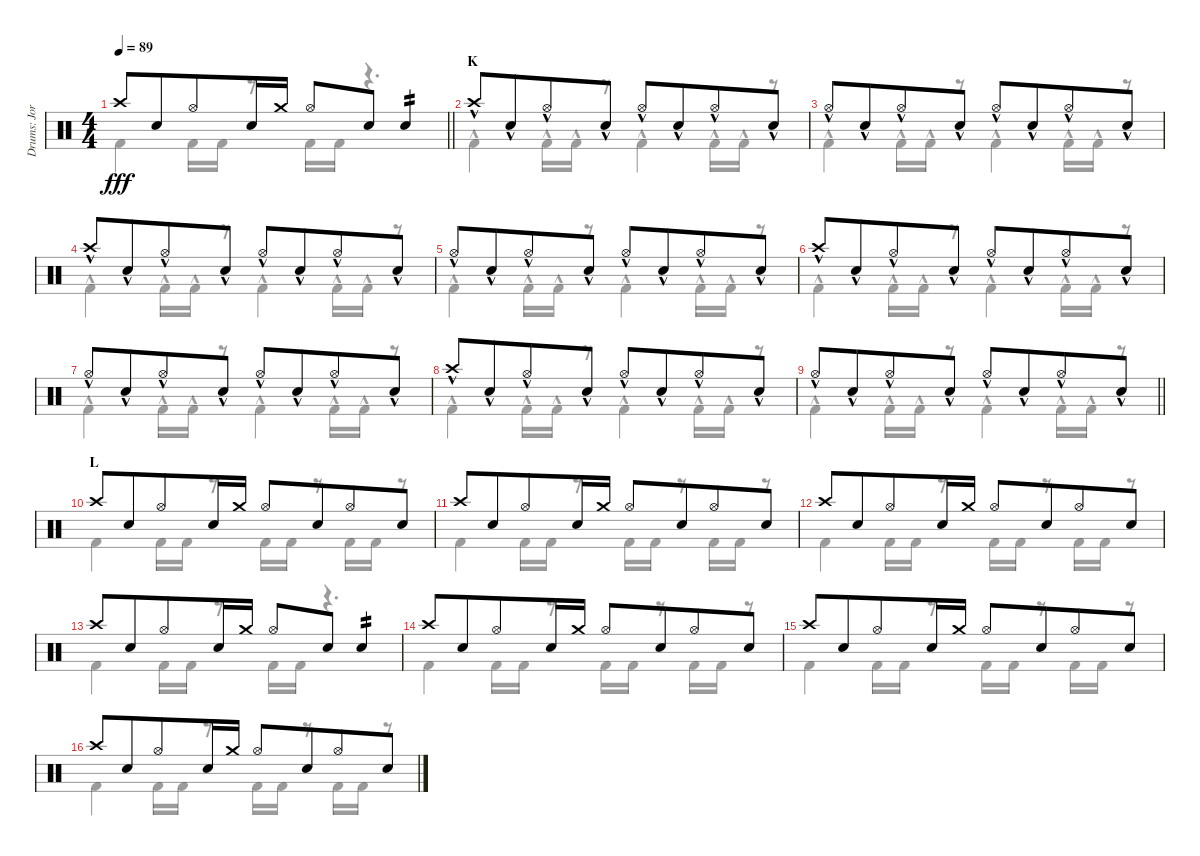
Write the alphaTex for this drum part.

\track ("Drums: Jorg" "Drums: Jor") {instrument percussion}
\staff {score}
\articulation defaults
\voice
\ts (4 4)
\tempo 89
\clef neutral
\barLineRight lightlight
\ks c "Crash high (hit)".8{dy fff} "Snare (hit) 2".8{beam merge} "Hi-Hat (open)".8 "Snare (hit) 2".16{beam merge} "Crash medium (hit)".16 "Hi-Hat (open)".8{beam merge} "Snare (hit) 2".8 "Snare (hit) 2".4{tp 2}
|
\section ("" "K")
"Crash high (hit)"{hac}.8 "Snare (hit) 2"{hac}.8{beam merge} "Hi-Hat (open)"{hac}.8 "Snare (hit) 2"{hac}.8 "Hi-Hat (open)"{hac}.8 "Snare (hit) 2"{hac}.8{beam merge} "Hi-Hat (open)"{hac}.8 "Snare (hit) 2"{hac}.8 |
"Hi-Hat (open)"{hac}.8 "Snare (hit) 2"{hac}.8{beam merge} "Hi-Hat (open)"{hac}.8 "Snare (hit) 2"{hac}.8 "Hi-Hat (open)"{hac}.8 "Snare (hit) 2"{hac}.8{beam merge} "Hi-Hat (open)"{hac}.8 "Snare (hit) 2"{hac}.8 |
"Crash high (hit)"{hac}.8 "Snare (hit) 2"{hac}.8{beam merge} "Hi-Hat (open)"{hac}.8 "Snare (hit) 2"{hac}.8 "Hi-Hat (open)"{hac}.8 "Snare (hit) 2"{hac}.8{beam merge} "Hi-Hat (open)"{hac}.8 "Snare (hit) 2"{hac}.8 |
"Hi-Hat (open)"{hac}.8 "Snare (hit) 2"{hac}.8{beam merge} "Hi-Hat (open)"{hac}.8 "Snare (hit) 2"{hac}.8 "Hi-Hat (open)"{hac}.8 "Snare (hit) 2"{hac}.8{beam merge} "Hi-Hat (open)"{hac}.8 "Snare (hit) 2"{hac}.8 |
"Crash high (hit)"{hac}.8 "Snare (hit) 2"{hac}.8{beam merge} "Hi-Hat (open)"{hac}.8 "Snare (hit) 2"{hac}.8 "Hi-Hat (open)"{hac}.8 "Snare (hit) 2"{hac}.8{beam merge} "Hi-Hat (open)"{hac}.8 "Snare (hit) 2"{hac}.8 |
"Hi-Hat (open)"{hac}.8 "Snare (hit) 2"{hac}.8{beam merge} "Hi-Hat (open)"{hac}.8 "Snare (hit) 2"{hac}.8 "Hi-Hat (open)"{hac}.8 "Snare (hit) 2"{hac}.8{beam merge} "Hi-Hat (open)"{hac}.8 "Snare (hit) 2"{hac}.8 |
"Crash high (hit)"{hac}.8 "Snare (hit) 2"{hac}.8{beam merge} "Hi-Hat (open)"{hac}.8 "Snare (hit) 2"{hac}.8 "Hi-Hat (open)"{hac}.8 "Snare (hit) 2"{hac}.8{beam merge} "Hi-Hat (open)"{hac}.8 "Snare (hit) 2"{hac}.8 |
\barLineRight lightlight "Hi-Hat (open)"{hac}.8 "Snare (hit) 2"{hac}.8{beam merge} "Hi-Hat (open)"{hac}.8 "Snare (hit) 2"{hac}.8 "Hi-Hat (open)"{hac}.8 "Snare (hit) 2"{hac}.8{beam merge} "Hi-Hat (open)"{hac}.8 "Snare (hit) 2"{hac}.8
|
\section ("" "L")
"Crash high (hit)".8 "Snare (hit) 2".8{beam merge} "Hi-Hat (open)".8 "Snare (hit) 2".16{beam merge} "Crash medium (hit)".16 "Hi-Hat (open)".8{beam merge} "Snare (hit) 2".8{beam merge} "Hi-Hat (open)".8 "Snare (hit) 2".8 |
"Crash high (hit)".8 "Snare (hit) 2".8{beam merge} "Hi-Hat (open)".8 "Snare (hit) 2".16{beam merge} "Crash medium (hit)".16 "Hi-Hat (open)".8{beam merge} "Snare (hit) 2".8{beam merge} "Hi-Hat (open)".8 "Snare (hit) 2".8 |
"Crash high (hit)".8 "Snare (hit) 2".8{beam merge} "Hi-Hat (open)".8 "Snare (hit) 2".16{beam merge} "Crash medium (hit)".16 "Hi-Hat (open)".8{beam merge} "Snare (hit) 2".8{beam merge} "Hi-Hat (open)".8 "Snare (hit) 2".8 |
"Crash high (hit)".8 "Snare (hit) 2".8{beam merge} "Hi-Hat (open)".8 "Snare (hit) 2".16{beam merge} "Crash medium (hit)".16 "Hi-Hat (open)".8{beam merge} "Snare (hit) 2".8 "Snare (hit) 2".4{tp 2} |
"Crash high (hit)".8 "Snare (hit) 2".8{beam merge} "Hi-Hat (open)".8 "Snare (hit) 2".16{beam merge} "Crash medium (hit)".16 "Hi-Hat (open)".8{beam merge} "Snare (hit) 2".8{beam merge} "Hi-Hat (open)".8 "Snare (hit) 2".8 |
"Crash high (hit)".8 "Snare (hit) 2".8{beam merge} "Hi-Hat (open)".8 "Snare (hit) 2".16{beam merge} "Crash medium (hit)".16 "Hi-Hat (open)".8{beam merge} "Snare (hit) 2".8{beam merge} "Hi-Hat (open)".8 "Snare (hit) 2".8 |
"Crash high (hit)".8 "Snare (hit) 2".8{beam merge} "Hi-Hat (open)".8 "Snare (hit) 2".16{beam merge} "Crash medium (hit)".16 "Hi-Hat (open)".8{beam merge} "Snare (hit) 2".8{beam merge} "Hi-Hat (open)".8 "Snare (hit) 2".8
\voice
\clef neutral
\ottava regular
\simile none
\barLineRight lightlight
\ks c "Kick (hit) 2".4{dy fff} "Kick (hit) 2".16 "Kick (hit) 2".16
r.8 "Kick (hit) 2".16 "Kick (hit) 2".16 r.4{d} |
"Kick (hit) 2"{hac}.4 "Kick (hit) 2"{hac}.16 "Kick (hit) 2"{hac}.16 r.8 "Kick (hit) 2"{hac}.4 "Kick (hit) 2"{hac}.16 "Kick (hit) 2"{hac}.16 r.8 |
"Kick (hit) 2"{hac}.4 "Kick (hit) 2"{hac}.16 "Kick (hit) 2"{hac}.16 r.8 "Kick (hit) 2"{hac}.4 "Kick (hit) 2"{hac}.16 "Kick (hit) 2"{hac}.16 r.8 |
"Kick (hit) 2"{hac}.4 "Kick (hit) 2"{hac}.16 "Kick (hit) 2"{hac}.16 r.8 "Kick (hit) 2"{hac}.4 "Kick (hit) 2"{hac}.16 "Kick (hit) 2"{hac}.16 r.8 |
"Kick (hit) 2"{hac}.4 "Kick (hit) 2"{hac}.16 "Kick (hit) 2"{hac}.16 r.8 "Kick (hit) 2"{hac}.4 "Kick (hit) 2"{hac}.16 "Kick (hit) 2"{hac}.16 r.8 |
"Kick (hit) 2"{hac}.4 "Kick (hit) 2"{hac}.16 "Kick (hit) 2"{hac}.16 r.8 "Kick (hit) 2"{hac}.4 "Kick (hit) 2"{hac}.16 "Kick (hit) 2"{hac}.16 r.8 |
"Kick (hit) 2"{hac}.4 "Kick (hit) 2"{hac}.16 "Kick (hit) 2"{hac}.16 r.8 "Kick (hit) 2"{hac}.4 "Kick (hit) 2"{hac}.16 "Kick (hit) 2"{hac}.16 r.8 |
"Kick (hit) 2"{hac}.4 "Kick (hit) 2"{hac}.16 "Kick (hit) 2"{hac}.16 r.8 "Kick (hit) 2"{hac}.4 "Kick (hit) 2"{hac}.16 "Kick (hit) 2"{hac}.16 r.8 |
\barLineRight lightlight "Kick (hit) 2"{hac}.4 "Kick (hit) 2"{hac}.16 "Kick (hit) 2"{hac}.16
r.8 "Kick (hit) 2"{hac}.4 "Kick (hit) 2"{hac}.16 "Kick (hit) 2"{hac}.16 r.8 |
"Kick (hit) 2".4 "Kick (hit) 2".16 "Kick (hit) 2".16 r.8 "Kick (hit) 2".16 "Kick (hit) 2".16 r.8 "Kick (hit) 2".16 "Kick (hit) 2".16 r.8 |
"Kick (hit) 2".4 "Kick (hit) 2".16 "Kick (hit) 2".16 r.8 "Kick (hit) 2".16 "Kick (hit) 2".16 r.8 "Kick (hit) 2".16 "Kick (hit) 2".16 r.8 |
"Kick (hit) 2".4 "Kick (hit) 2".16 "Kick (hit) 2".16 r.8 "Kick (hit) 2".16 "Kick (hit) 2".16 r.8 "Kick (hit) 2".16 "Kick (hit) 2".16 r.8 |
"Kick (hit) 2".4 "Kick (hit) 2".16 "Kick (hit) 2".16 r.8 "Kick (hit) 2".16 "Kick (hit) 2".16 r.4{d} |
"Kick (hit) 2".4 "Kick (hit) 2".16 "Kick (hit) 2".16 r.8 "Kick (hit) 2".16 "Kick (hit) 2".16 r.8 "Kick (hit) 2".16 "Kick (hit) 2".16 r.8 |
"Kick (hit) 2".4 "Kick (hit) 2".16 "Kick (hit) 2".16 r.8 "Kick (hit) 2".16 "Kick (hit) 2".16 r.8 "Kick (hit) 2".16 "Kick (hit) 2".16 r.8 |
"Kick (hit) 2".4 "Kick (hit) 2".16 "Kick (hit) 2".16 r.8 "Kick (hit) 2".16 "Kick (hit) 2".16 r.8 "Kick (hit) 2".16 "Kick (hit) 2".16 r.8
